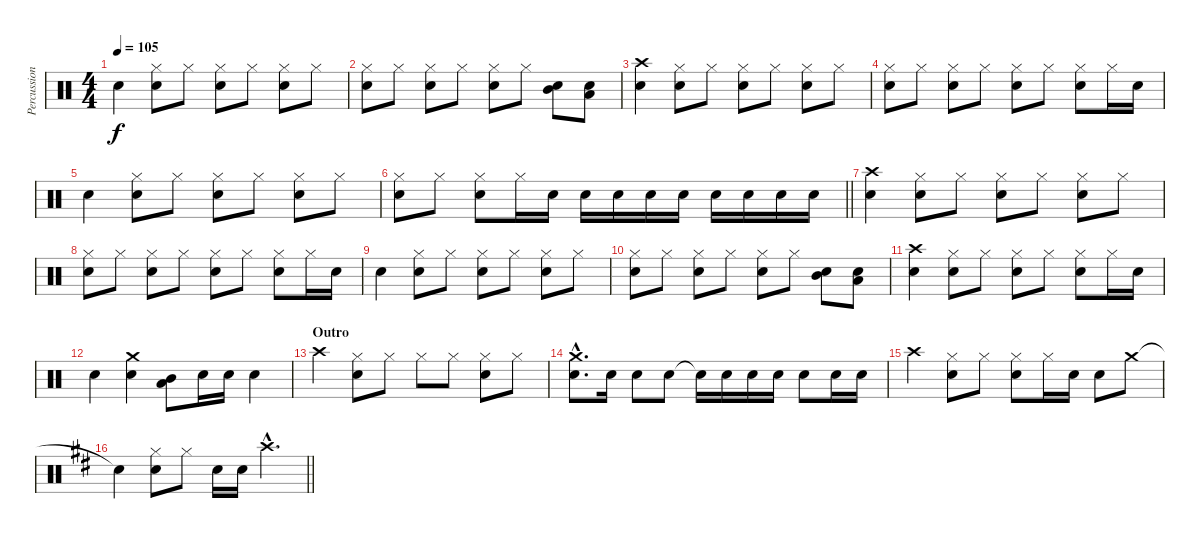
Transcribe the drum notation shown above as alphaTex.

\track ("Percussions" "Percussion") {instrument percussion}
\staff {score}
\articulation defaults
\ts (4 4)
\tempo 105
\clef neutral
\ks c "Snare (hit) 2".4{dy f}
("Hi-Hat (closed)" "Snare (hit) 2").8 "Hi-Hat (closed)".8 ("Hi-Hat (closed)" "Snare (hit) 2").8 "Hi-Hat (closed)".8 ("Hi-Hat (closed)" "Snare (hit) 2").8 "Hi-Hat (closed)".8 |
("Hi-Hat (closed)" "Snare (hit) 2").8 "Hi-Hat (closed)".8 ("Hi-Hat (closed)" "Snare (hit) 2").8 "Hi-Hat (closed)".8 ("Hi-Hat (closed)" "Snare (hit) 2").8 "Hi-Hat (closed)".8 ("Mid Tom (hit)" "Snare (hit) 2").8 ("Low Tom (hit)" "Snare (hit) 2").8 |
("Crash high (hit)" "Snare (hit) 2").4 ("Hi-Hat (closed)" "Snare (hit) 2").8 "Hi-Hat (closed)".8 ("Hi-Hat (closed)" "Snare (hit) 2").8 "Hi-Hat (closed)".8 ("Hi-Hat (closed)" "Snare (hit) 2").8 "Hi-Hat (closed)".8 |
("Hi-Hat (closed)" "Snare (hit) 2").8 "Hi-Hat (closed)".8 ("Hi-Hat (closed)" "Snare (hit) 2").8 "Hi-Hat (closed)".8 ("Hi-Hat (closed)" "Snare (hit) 2").8 "Hi-Hat (closed)".8 ("Hi-Hat (closed)" "Snare (hit) 2").8 "Hi-Hat (closed)".16 "Snare (hit) 2".16 |
"Snare (hit) 2".4 ("Hi-Hat (closed)" "Snare (hit) 2").8 "Hi-Hat (closed)".8 ("Hi-Hat (closed)" "Snare (hit) 2").8 "Hi-Hat (closed)".8 ("Hi-Hat (closed)" "Snare (hit) 2").8 "Hi-Hat (closed)".8 |
\barLineRight lightlight
("Hi-Hat (closed)" "Snare (hit) 2").8 "Hi-Hat (closed)".8 ("Hi-Hat (closed)" "Snare (hit) 2").8 "Hi-Hat (closed)".16 "Snare (hit) 2".16 "Snare (hit) 2".16 "Snare (hit) 2".16 "Snare (hit) 2".16 "Snare (hit) 2".16 "Snare (hit) 2".16 "Snare (hit) 2".16 "Snare (hit) 2".16 "Snare (hit) 2".16 |
("Crash high (hit)" "Snare (hit) 2").4 ("Hi-Hat (closed)" "Snare (hit) 2").8 "Hi-Hat (closed)".8 ("Hi-Hat (closed)" "Snare (hit) 2").8 "Hi-Hat (closed)".8 ("Hi-Hat (closed)" "Snare (hit) 2").8 "Hi-Hat (closed)".8 |
("Hi-Hat (closed)" "Snare (hit) 2").8 "Hi-Hat (closed)".8 ("Hi-Hat (closed)" "Snare (hit) 2").8 "Hi-Hat (closed)".8 ("Hi-Hat (closed)" "Snare (hit) 2").8 "Hi-Hat (closed)".8 ("Hi-Hat (closed)" "Snare (hit) 2").8 "Hi-Hat (closed)".16 "Snare (hit) 2".16 |
"Snare (hit) 2".4 ("Hi-Hat (closed)" "Snare (hit) 2").8 "Hi-Hat (closed)".8 ("Hi-Hat (closed)" "Snare (hit) 2").8 "Hi-Hat (closed)".8 ("Hi-Hat (closed)" "Snare (hit) 2").8 "Hi-Hat (closed)".8 |
("Hi-Hat (closed)" "Snare (hit) 2").8 "Hi-Hat (closed)".8 ("Hi-Hat (closed)" "Snare (hit) 2").8 "Hi-Hat (closed)".8 ("Hi-Hat (closed)" "Snare (hit) 2").8 "Hi-Hat (closed)".8 ("Mid Tom (hit)" "Snare (hit) 2").8 ("Low Tom (hit)" "Snare (hit) 2").8 |
("Crash high (hit)" "Snare (hit) 2").4 ("Hi-Hat (closed)" "Snare (hit) 2").8 "Hi-Hat (closed)".8 ("Hi-Hat (closed)" "Snare (hit) 2").8 "Hi-Hat (closed)".8 ("Hi-Hat (closed)" "Snare (hit) 2").8 "Hi-Hat (closed)".16 "Snare (hit) 2".16 |
"Snare (hit) 2".4 ("Crash medium (hit)" "Snare (hit) 2").4 ("Low Tom (hit)" "Mid Tom (hit)").8 "Snare (hit) 2".16 "Snare (hit) 2".16 "Snare (hit) 2".4 |
\section ("" "Outro")
"Crash high (hit)".4 ("Hi-Hat (closed)" "Snare (hit) 2").8 "Hi-Hat (closed)".8 "Hi-Hat (closed)".8 "Hi-Hat (closed)".8 ("Hi-Hat (closed)" "Snare (hit) 2").8 "Hi-Hat (closed)".8 |
("Crash medium (hit)"{hac} "Snare (hit) 2"{hac}).8{d} "Snare (hit) 2".16 "Snare (hit) 2".8 "Snare (hit) 2".8 "Snare (hit)"{t}.16 "Snare (hit) 2".16 "Snare (hit) 2".16 "Snare (hit) 2".16 "Snare (hit) 2".8 "Snare (hit) 2".16 "Snare (hit) 2".16 |
"Crash high (hit)".4 ("Hi-Hat (closed)" "Snare (hit) 2").8 "Hi-Hat (closed)".8 ("Hi-Hat (closed)" "Snare (hit) 2").8 "Hi-Hat (closed)".16 "Snare (hit) 2".16 "Snare (hit) 2".8 "Crash medium (hit)".8 |
\barLineRight lightlight
\ks d "Snare (hit)"{t}.4
("Hi-Hat (closed)" "Snare (hit) 2").8 "Hi-Hat (closed)".8 "Snare (hit) 2".16 "Snare (hit) 2".16 "Crash high (hit)"{hac}.4{d}
